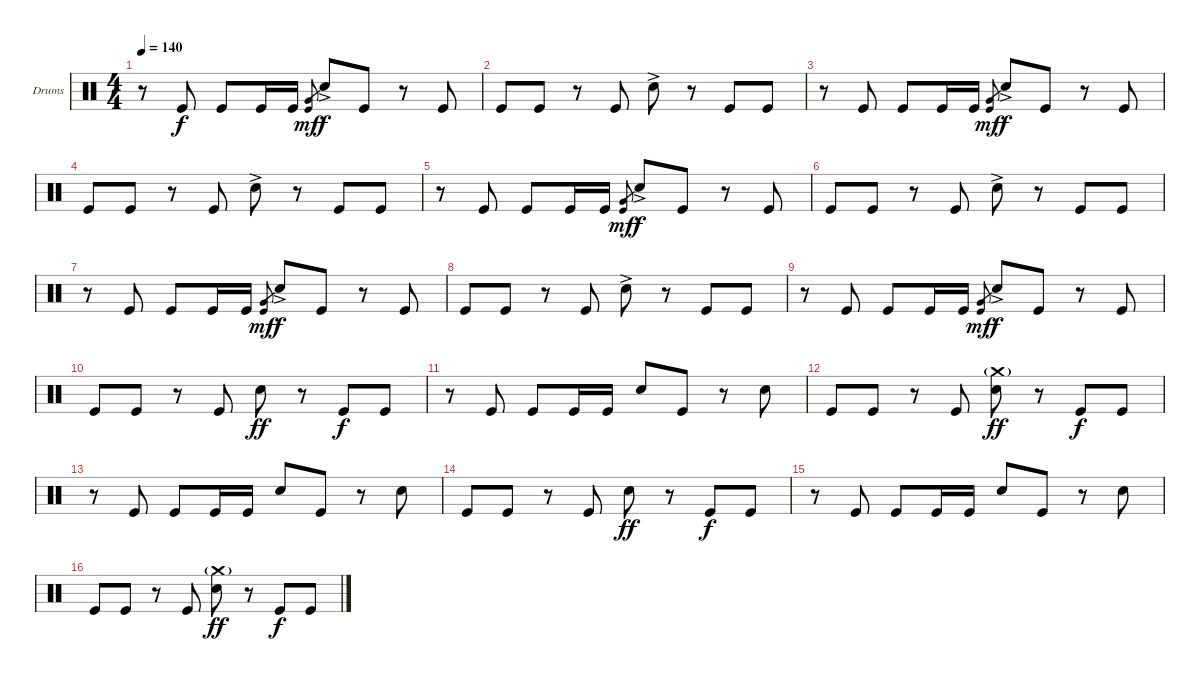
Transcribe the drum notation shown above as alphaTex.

\defaultSystemsLayout 4
\bracketExtendMode groupsimilarinstruments
\firstSystemTrackNameOrientation horizontal
\otherSystemsTrackNameOrientation horizontal
\track ("Drumkit" "Drums") {instrument percussion}
\staff {score}
\articulation defaults
\ts (4 4)
\tempo 140
\clef neutral
\ks c
r.8{dy f} "Kick (hit)".8 "Kick (hit)".8 "Kick (hit)".16 "Kick (hit)".16 ("Very Low Tom (hit)" "Kick (hit)").8{gr dy mf} "Snare (hit) 2"{ac}.8{dy f} "Kick (hit)".8 r.8 "Kick (hit)".8 |
"Kick (hit)".8 "Kick (hit)".8 r.8 "Kick (hit)".8 "Snare (hit) 2"{ac}.8 r.8 "Kick (hit)".8 "Kick (hit)".8 |
r.8 "Kick (hit)".8 "Kick (hit)".8 "Kick (hit)".16 "Kick (hit)".16 ("Very Low Tom (hit)" "Kick (hit)").8{gr dy mf} "Snare (hit) 2"{ac}.8{dy f} "Kick (hit)".8 r.8 "Kick (hit)".8 |
"Kick (hit)".8 "Kick (hit)".8 r.8 "Kick (hit)".8 "Snare (hit) 2"{ac}.8 r.8 "Kick (hit)".8 "Kick (hit)".8 |
r.8 "Kick (hit)".8 "Kick (hit)".8 "Kick (hit)".16 "Kick (hit)".16 ("Very Low Tom (hit)" "Kick (hit)").8{gr dy mf} "Snare (hit) 2"{ac}.8{dy f} "Kick (hit)".8 r.8 "Kick (hit)".8 |
"Kick (hit)".8 "Kick (hit)".8 r.8 "Kick (hit)".8 "Snare (hit) 2"{ac}.8 r.8 "Kick (hit)".8 "Kick (hit)".8 |
r.8 "Kick (hit)".8 "Kick (hit)".8 "Kick (hit)".16 "Kick (hit)".16 ("Very Low Tom (hit)" "Kick (hit)").8{gr dy mf} "Snare (hit) 2"{ac}.8{dy f} "Kick (hit)".8 r.8 "Kick (hit)".8 |
"Kick (hit)".8 "Kick (hit)".8 r.8 "Kick (hit)".8 "Snare (hit) 2"{ac}.8 r.8 "Kick (hit)".8 "Kick (hit)".8 |
r.8 "Kick (hit)".8 "Kick (hit)".8 "Kick (hit)".16 "Kick (hit)".16 ("Very Low Tom (hit)" "Kick (hit)").8{gr dy mf} "Snare (hit) 2"{ac}.8{dy f} "Kick (hit)".8 r.8 "Kick (hit)".8 |
"Kick (hit)".8 "Kick (hit)".8 r.8 "Kick (hit)".8 "Snare (hit) 2".8{dy ff} r.8 "Kick (hit)".8{dy f} "Kick (hit)".8 |
r.8 "Kick (hit)".8 "Kick (hit)".8 "Kick (hit)".16 "Kick (hit)".16 "Snare (hit) 2".8 "Kick (hit)".8 r.8 "Snare (hit) 2".8 |
"Kick (hit)".8 "Kick (hit)".8 r.8 "Kick (hit)".8 ("Crash medium (hit)"{g} "Snare (hit) 2").8{dy ff} r.8 "Kick (hit)".8{dy f} "Kick (hit)".8 |
r.8 "Kick (hit)".8 "Kick (hit)".8 "Kick (hit)".16 "Kick (hit)".16 "Snare (hit) 2".8 "Kick (hit)".8 r.8 "Snare (hit) 2".8 |
"Kick (hit)".8 "Kick (hit)".8 r.8 "Kick (hit)".8 "Snare (hit) 2".8{dy ff} r.8 "Kick (hit)".8{dy f} "Kick (hit)".8 |
r.8 "Kick (hit)".8 "Kick (hit)".8 "Kick (hit)".16 "Kick (hit)".16 "Snare (hit) 2".8 "Kick (hit)".8 r.8 "Snare (hit) 2".8 |
"Kick (hit)".8 "Kick (hit)".8 r.8 "Kick (hit)".8 ("Crash medium (hit)"{g} "Snare (hit) 2").8{dy ff} r.8 "Kick (hit)".8{dy f} "Kick (hit)".8
